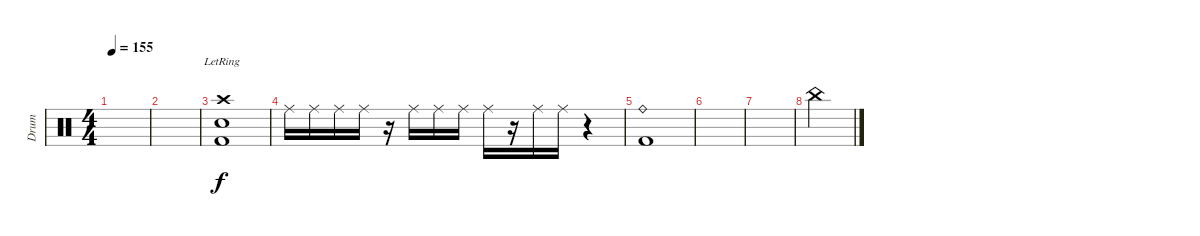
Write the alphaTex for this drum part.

\track ("Drum" "Drum") {instrument percussion}
\staff {score}
\articulation defaults
\ts (4 4)
\tempo 155
\clef neutral
\ks c
|
|
("Snare (hit) 2" "Crash high (hit)"{lr} "Kick (hit) 2").1 |
"Ride (middle)"{pm}.16 "Ride (middle)"{pm}.16 "Ride (middle)"{pm}.16 "Ride (middle)"{pm}.16 r.16 "Ride (middle)"{pm}.16 "Ride (middle)"{pm}.16 "Ride (middle)"{pm}.16 "Ride (middle)"{pm}.16 r.16 "Ride (middle)"{pm}.16 "Ride (middle)"{pm}.16 r.4 |
("Ride (bell)" "Kick (hit) 2").1 |
|
|
"China (hit)"{pm}.4
